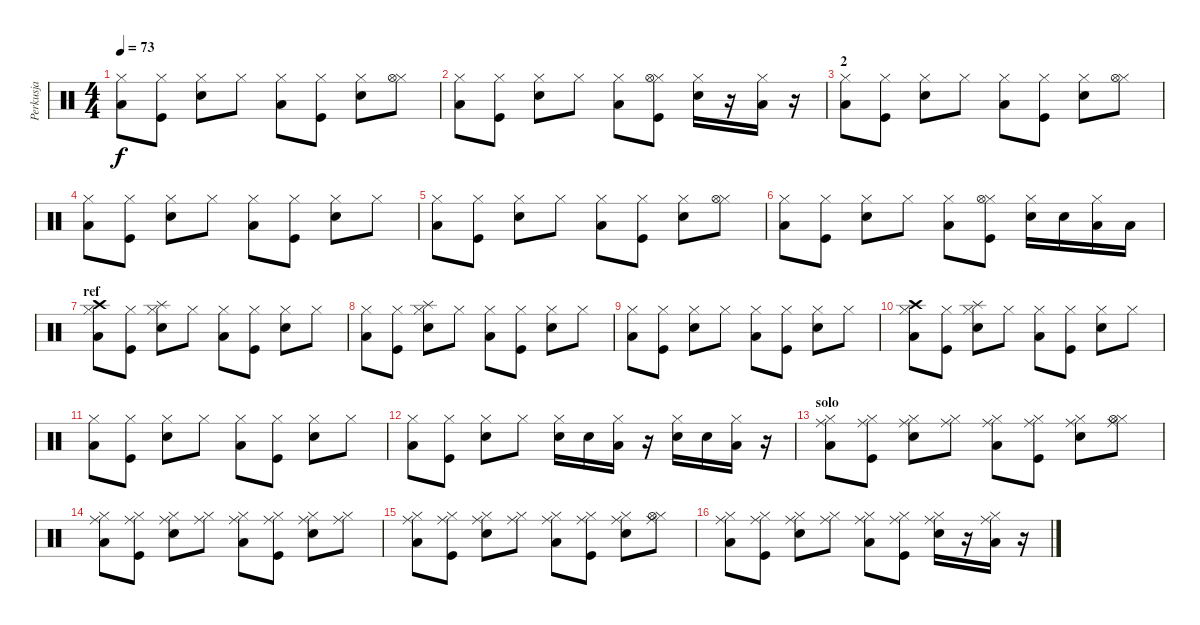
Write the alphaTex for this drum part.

\track ("Perkusja" "Perkusja") {instrument percussion}
\staff {score}
\articulation defaults
\ts (4 4)
\tempo 73
\clef neutral
\ks c
("Hi-Hat (closed)" "Low Tom (hit)").8{dy f} ("Hi-Hat (closed)" "Kick (hit)").8 ("Hi-Hat (closed)" "Electric Snare (hit)").8 "Hi-Hat (closed)".8 ("Hi-Hat (closed)" "Low Tom (hit)").8 ("Hi-Hat (closed)" "Kick (hit)").8 ("Hi-Hat (closed)" "Electric Snare (hit)").8 ("Hi-Hat (closed)" "Hi-Hat (open)").8 |
("Hi-Hat (closed)" "Low Tom (hit)").8 ("Hi-Hat (closed)" "Kick (hit)").8 ("Hi-Hat (closed)" "Electric Snare (hit)").8 "Hi-Hat (closed)".8 ("Hi-Hat (closed)" "Low Tom (hit)").8 ("Hi-Hat (closed)" "Kick (hit)" "Hi-Hat (open)").8 ("Hi-Hat (closed)" "Electric Snare (hit)").16 r.16 ("Hi-Hat (closed)" "Low Tom (hit)").16 r.16 |
\section ("" "2")
("Hi-Hat (closed)" "Low Tom (hit)").8 ("Hi-Hat (closed)" "Kick (hit)").8 ("Hi-Hat (closed)" "Electric Snare (hit)").8 "Hi-Hat (closed)".8 ("Hi-Hat (closed)" "Low Tom (hit)").8 ("Hi-Hat (closed)" "Kick (hit)").8 ("Hi-Hat (closed)" "Electric Snare (hit)").8 ("Hi-Hat (closed)" "Hi-Hat (open)").8 |
("Hi-Hat (closed)" "Low Tom (hit)").8 ("Hi-Hat (closed)" "Kick (hit)").8 ("Hi-Hat (closed)" "Electric Snare (hit)").8 "Hi-Hat (closed)".8 ("Hi-Hat (closed)" "Low Tom (hit)").8 ("Hi-Hat (closed)" "Kick (hit)").8 ("Hi-Hat (closed)" "Electric Snare (hit)").8 "Hi-Hat (closed)".8 |
("Hi-Hat (closed)" "Low Tom (hit)").8 ("Hi-Hat (closed)" "Kick (hit)").8 ("Hi-Hat (closed)" "Electric Snare (hit)").8 "Hi-Hat (closed)".8 ("Hi-Hat (closed)" "Low Tom (hit)").8 ("Hi-Hat (closed)" "Kick (hit)").8 ("Hi-Hat (closed)" "Electric Snare (hit)").8 ("Hi-Hat (closed)" "Hi-Hat (open)").8 |
("Hi-Hat (closed)" "Low Tom (hit)").8 ("Hi-Hat (closed)" "Kick (hit)").8 ("Hi-Hat (closed)" "Electric Snare (hit)").8 "Hi-Hat (closed)".8 ("Hi-Hat (closed)" "Low Tom (hit)").8 ("Hi-Hat (closed)" "Kick (hit)" "Hi-Hat (open)").8 ("Hi-Hat (closed)" "Electric Snare (hit)").16 "Electric Snare (hit)".16 ("Hi-Hat (closed)" "Low Tom (hit)").16 "Low Tom (hit)".16 |
\section ("" "ref")
("Hi-Hat (closed)" "Low Tom (hit)" "Crash high (hit)").8 ("Hi-Hat (closed)" "Kick (hit)").8 ("Hi-Hat (closed)" "Electric Snare (hit)" "Splash (hit)").8 "Hi-Hat (closed)".8 ("Hi-Hat (closed)" "Low Tom (hit)").8 ("Hi-Hat (closed)" "Kick (hit)").8 ("Hi-Hat (closed)" "Electric Snare (hit)").8 "Hi-Hat (closed)".8 |
("Hi-Hat (closed)" "Low Tom (hit)").8 ("Hi-Hat (closed)" "Kick (hit)").8 ("Hi-Hat (closed)" "Electric Snare (hit)" "Splash (hit)").8 "Hi-Hat (closed)".8 ("Hi-Hat (closed)" "Low Tom (hit)").8 ("Hi-Hat (closed)" "Kick (hit)").8 ("Hi-Hat (closed)" "Electric Snare (hit)").8 "Hi-Hat (closed)".8 |
("Hi-Hat (closed)" "Low Tom (hit)").8 ("Hi-Hat (closed)" "Kick (hit)").8 ("Hi-Hat (closed)" "Electric Snare (hit)").8 "Hi-Hat (closed)".8 ("Hi-Hat (closed)" "Low Tom (hit)").8 ("Hi-Hat (closed)" "Kick (hit)").8 ("Hi-Hat (closed)" "Electric Snare (hit)").8 "Hi-Hat (closed)".8 |
("Hi-Hat (closed)" "Low Tom (hit)" "Crash high (hit)").8 ("Hi-Hat (closed)" "Kick (hit)").8 ("Hi-Hat (closed)" "Electric Snare (hit)" "Splash (hit)").8 "Hi-Hat (closed)".8 ("Hi-Hat (closed)" "Low Tom (hit)").8 ("Hi-Hat (closed)" "Kick (hit)").8 ("Hi-Hat (closed)" "Electric Snare (hit)").8 "Hi-Hat (closed)".8 |
("Hi-Hat (closed)" "Low Tom (hit)").8 ("Hi-Hat (closed)" "Kick (hit)").8 ("Hi-Hat (closed)" "Electric Snare (hit)").8 "Hi-Hat (closed)".8 ("Hi-Hat (closed)" "Low Tom (hit)").8 ("Hi-Hat (closed)" "Kick (hit)").8 ("Hi-Hat (closed)" "Electric Snare (hit)").8 "Hi-Hat (closed)".8 |
("Hi-Hat (closed)" "Low Tom (hit)").8 ("Hi-Hat (closed)" "Kick (hit)").8 ("Hi-Hat (closed)" "Electric Snare (hit)").8 "Hi-Hat (closed)".8 ("Hi-Hat (closed)" "Electric Snare (hit)").16 "Electric Snare (hit)".16 ("Hi-Hat (closed)" "Low Tom (hit)").16 r.16 ("Hi-Hat (closed)" "Electric Snare (hit)").16 "Electric Snare (hit)".16 ("Hi-Hat (closed)" "Low Tom (hit)").16 r.16 |
\section ("" "solo")
("Hi-Hat (closed)" "Low Tom (hit)" "Ride (middle)").8 ("Hi-Hat (closed)" "Kick (hit)" "Ride (middle)").8 ("Hi-Hat (closed)" "Electric Snare (hit)" "Ride (middle)").8 ("Hi-Hat (closed)" "Ride (middle)").8 ("Hi-Hat (closed)" "Low Tom (hit)" "Ride (middle)").8 ("Hi-Hat (closed)" "Kick (hit)" "Ride (middle)").8 ("Hi-Hat (closed)" "Electric Snare (hit)" "Ride (middle)").8 ("Hi-Hat (closed)" "Hi-Hat (open)" "Ride (middle)").8 |
("Hi-Hat (closed)" "Low Tom (hit)" "Ride (middle)").8 ("Hi-Hat (closed)" "Kick (hit)" "Ride (middle)").8 ("Hi-Hat (closed)" "Electric Snare (hit)" "Ride (middle)").8 ("Hi-Hat (closed)" "Ride (middle)").8 ("Hi-Hat (closed)" "Low Tom (hit)" "Ride (middle)").8 ("Hi-Hat (closed)" "Kick (hit)" "Ride (middle)").8 ("Hi-Hat (closed)" "Electric Snare (hit)" "Ride (middle)").8 ("Hi-Hat (closed)" "Ride (middle)").8 |
("Hi-Hat (closed)" "Low Tom (hit)" "Ride (middle)").8 ("Hi-Hat (closed)" "Kick (hit)" "Ride (middle)").8 ("Hi-Hat (closed)" "Electric Snare (hit)" "Ride (middle)").8 ("Hi-Hat (closed)" "Ride (middle)").8 ("Hi-Hat (closed)" "Low Tom (hit)" "Ride (middle)").8 ("Hi-Hat (closed)" "Kick (hit)" "Ride (middle)").8 ("Hi-Hat (closed)" "Electric Snare (hit)" "Ride (middle)").8 ("Hi-Hat (closed)" "Hi-Hat (open)" "Ride (middle)").8 |
("Hi-Hat (closed)" "Low Tom (hit)" "Ride (middle)").8 ("Hi-Hat (closed)" "Kick (hit)" "Ride (middle)").8 ("Hi-Hat (closed)" "Electric Snare (hit)" "Ride (middle)").8 ("Hi-Hat (closed)" "Ride (middle)").8 ("Hi-Hat (closed)" "Low Tom (hit)" "Ride (middle)").8 ("Hi-Hat (closed)" "Kick (hit)" "Ride (middle)").8 ("Hi-Hat (closed)" "Electric Snare (hit)" "Ride (middle)").16 r.16 ("Hi-Hat (closed)" "Low Tom (hit)" "Ride (middle)").16 r.16
